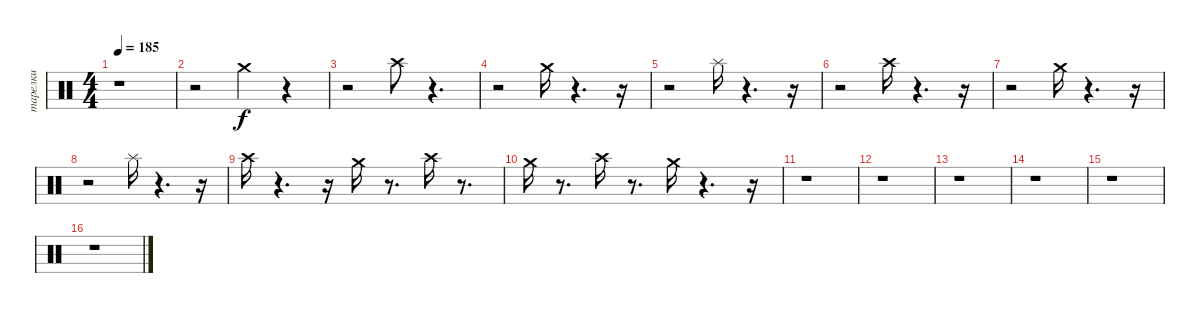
\track ("тарелки" "тарелки") {instrument percussion}
\staff {score}
\articulation defaults
\ts (4 4)
\tempo 185
\clef neutral
\ks c
r.1{dy f} |
r.2 "Crash medium (hit)".4 r.4 |
r.2 "Crash high (hit)".8 r.4{d} |
r.2 "Crash medium (hit)".16 r.4{d} r.16 |
r.2 "Splash (hit)".16 r.4{d} r.16 |
r.2 "Crash high (hit)".16 r.4{d} r.16 |
r.2 "Crash medium (hit)".16 r.4{d} r.16 |
r.2 "Splash (hit)".16 r.4{d} r.16 |
"Crash high (hit)".16 r.4{d} r.16 "Crash medium (hit)".16 r.8{d} "Crash high (hit)".16 r.8{d} |
"Crash medium (hit)".16 r.8{d} "Crash high (hit)".16 r.8{d} "Crash medium (hit)".16 r.4{d} r.16 |
r.1 |
r.1 |
r.1 |
r.1 |
r.1 |
r.1
